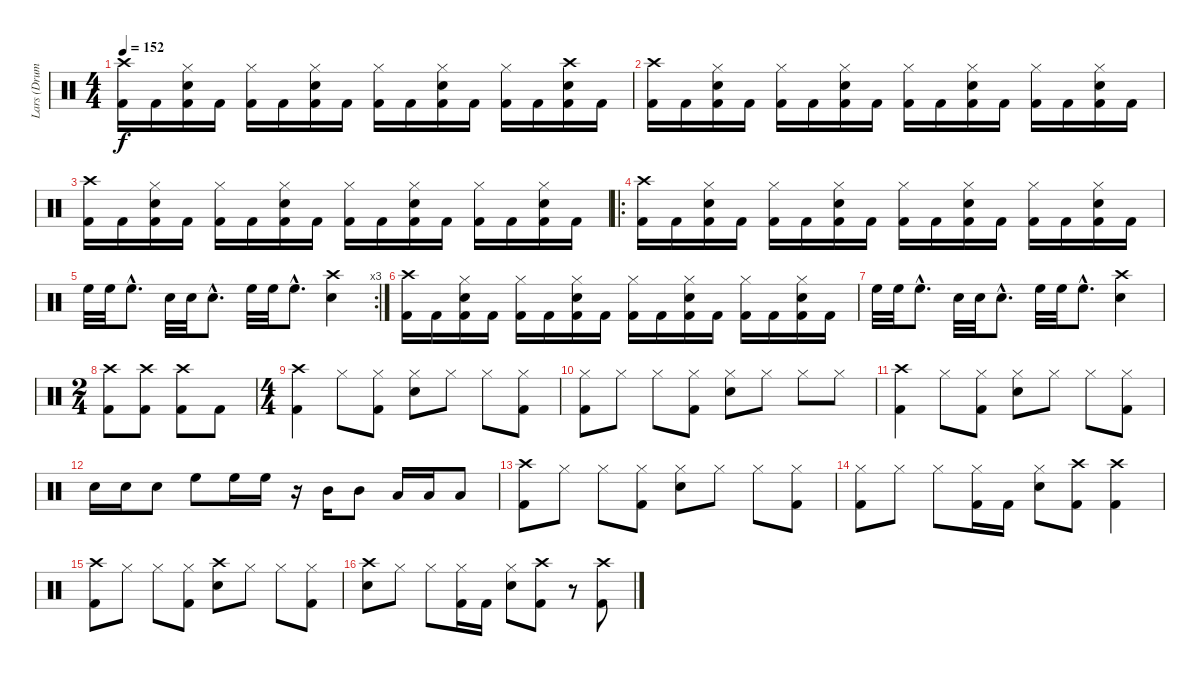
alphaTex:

\track ("Lars (Drums)" "Lars (Drum") {instrument percussion}
\staff {score}
\articulation defaults
\ts (4 4)
\tempo 152
\clef neutral
\ks c
("Crash high (hit)" "Kick (hit) 2").16{dy f} "Kick (hit) 2".16 ("Hi-Hat (closed)" "Kick (hit) 2" "Snare (hit) 2").16 "Kick (hit) 2".16 ("Hi-Hat (closed)" "Kick (hit) 2").16 "Kick (hit) 2".16 ("Hi-Hat (closed)" "Kick (hit) 2" "Snare (hit) 2").16 "Kick (hit) 2".16 ("Hi-Hat (closed)" "Kick (hit) 2").16 "Kick (hit) 2".16 ("Hi-Hat (closed)" "Kick (hit) 2" "Snare (hit) 2").16 "Kick (hit) 2".16 ("Hi-Hat (closed)" "Kick (hit) 2").16 "Kick (hit) 2".16 ("Crash high (hit)" "Kick (hit) 2" "Snare (hit) 2").16 "Kick (hit) 2".16 |
("Crash high (hit)" "Kick (hit) 2").16 "Kick (hit) 2".16 ("Hi-Hat (closed)" "Kick (hit) 2" "Snare (hit) 2").16 "Kick (hit) 2".16 ("Hi-Hat (closed)" "Kick (hit) 2").16 "Kick (hit) 2".16 ("Hi-Hat (closed)" "Kick (hit) 2" "Snare (hit) 2").16 "Kick (hit) 2".16 ("Hi-Hat (closed)" "Kick (hit) 2").16 "Kick (hit) 2".16 ("Hi-Hat (closed)" "Kick (hit) 2" "Snare (hit) 2").16 "Kick (hit) 2".16 ("Hi-Hat (closed)" "Kick (hit) 2").16 "Kick (hit) 2".16 ("Hi-Hat (closed)" "Kick (hit) 2" "Snare (hit) 2").16 "Kick (hit) 2".16 |
("Crash high (hit)" "Kick (hit) 2").16 "Kick (hit) 2".16 ("Hi-Hat (closed)" "Kick (hit) 2" "Snare (hit) 2").16 "Kick (hit) 2".16 ("Hi-Hat (closed)" "Kick (hit) 2").16 "Kick (hit) 2".16 ("Hi-Hat (closed)" "Kick (hit) 2" "Snare (hit) 2").16 "Kick (hit) 2".16 ("Hi-Hat (closed)" "Kick (hit) 2").16 "Kick (hit) 2".16 ("Hi-Hat (closed)" "Kick (hit) 2" "Snare (hit) 2").16 "Kick (hit) 2".16 ("Hi-Hat (closed)" "Kick (hit) 2").16 "Kick (hit) 2".16 ("Hi-Hat (closed)" "Kick (hit) 2" "Snare (hit) 2").16 "Kick (hit) 2".16 |
\ro
("Crash high (hit)" "Kick (hit) 2").16 "Kick (hit) 2".16 ("Hi-Hat (closed)" "Kick (hit) 2" "Snare (hit) 2").16 "Kick (hit) 2".16 ("Hi-Hat (closed)" "Kick (hit) 2").16 "Kick (hit) 2".16 ("Hi-Hat (closed)" "Kick (hit) 2" "Snare (hit) 2").16 "Kick (hit) 2".16 ("Hi-Hat (closed)" "Kick (hit) 2").16 "Kick (hit) 2".16 ("Hi-Hat (closed)" "Kick (hit) 2" "Snare (hit) 2").16 "Kick (hit) 2".16 ("Hi-Hat (closed)" "Kick (hit) 2").16 "Kick (hit) 2".16 ("Hi-Hat (closed)" "Kick (hit) 2" "Snare (hit) 2").16 "Kick (hit) 2".16 |
\rc 3 "High Floor Tom (hit)".32 "High Floor Tom (hit)".32 "High Floor Tom (hit)"{hac}.8{d} "Snare (hit) 2".32 "Snare (hit) 2".32 "Snare (hit) 2"{hac}.8{d} "High Floor Tom (hit)".32 "High Floor Tom (hit)".32 "High Floor Tom (hit)"{hac}.8{d}
("Crash high (hit)" "Snare (hit) 2").4 |
("Crash high (hit)" "Kick (hit) 2").16 "Kick (hit) 2".16 ("Hi-Hat (closed)" "Kick (hit) 2" "Snare (hit) 2").16 "Kick (hit) 2".16 ("Hi-Hat (closed)" "Kick (hit) 2").16 "Kick (hit) 2".16 ("Hi-Hat (closed)" "Kick (hit) 2" "Snare (hit) 2").16 "Kick (hit) 2".16 ("Hi-Hat (closed)" "Kick (hit) 2").16 "Kick (hit) 2".16 ("Hi-Hat (closed)" "Kick (hit) 2" "Snare (hit) 2").16 "Kick (hit) 2".16 ("Hi-Hat (closed)" "Kick (hit) 2").16 "Kick (hit) 2".16 ("Hi-Hat (closed)" "Kick (hit) 2" "Snare (hit) 2").16 "Kick (hit) 2".16 |
"High Floor Tom (hit)".32 "High Floor Tom (hit)".32 "High Floor Tom (hit)"{hac}.8{d} "Snare (hit) 2".32 "Snare (hit) 2".32 "Snare (hit) 2"{hac}.8{d} "High Floor Tom (hit)".32 "High Floor Tom (hit)".32 "High Floor Tom (hit)"{hac}.8{d} ("Crash high (hit)" "Snare (hit) 2").4 |
\ts (2 4)
("Crash high (hit)" "Kick (hit) 2").8 ("Crash high (hit)" "Kick (hit) 2").8 ("Crash high (hit)" "Kick (hit) 2").8 "Kick (hit) 2".8 |
\ts (4 4)
("Crash high (hit)" "Kick (hit) 2").4 "Hi-Hat (closed)".8 ("Hi-Hat (closed)" "Kick (hit) 2").8 ("Hi-Hat (closed)" "Snare (hit) 2").8 "Hi-Hat (closed)".8 "Hi-Hat (closed)".8 ("Hi-Hat (closed)" "Kick (hit) 2").8 |
("Hi-Hat (closed)" "Kick (hit) 2").8 "Hi-Hat (closed)".8 "Hi-Hat (closed)".8 ("Hi-Hat (closed)" "Kick (hit) 2").8 ("Hi-Hat (closed)" "Snare (hit) 2").8 "Hi-Hat (closed)".8 "Hi-Hat (closed)".8 "Hi-Hat (closed)".8 |
("Crash high (hit)" "Kick (hit) 2").4 "Hi-Hat (closed)".8 ("Hi-Hat (closed)" "Kick (hit) 2").8 ("Hi-Hat (closed)" "Snare (hit) 2").8 "Hi-Hat (closed)".8 "Hi-Hat (closed)".8 ("Hi-Hat (closed)" "Kick (hit) 2").8 |
"Snare (hit) 2".16 "Snare (hit) 2".16 "Snare (hit) 2".8 "High Floor Tom (hit)".8 "High Floor Tom (hit)".16 "High Floor Tom (hit)".16 r.16 "Mid Tom (hit)".16 "Mid Tom (hit)".8 "Low Tom (hit)".16 "Low Tom (hit)".16 "Low Tom (hit)".8 |
("Crash high (hit)" "Kick (hit) 2").8 "Hi-Hat (closed)".8 "Hi-Hat (closed)".8 ("Hi-Hat (closed)" "Kick (hit) 2").8 ("Hi-Hat (closed)" "Snare (hit) 2").8 "Hi-Hat (closed)".8 "Hi-Hat (closed)".8 ("Hi-Hat (closed)" "Kick (hit) 2").8 |
("Hi-Hat (closed)" "Kick (hit) 2").8 "Hi-Hat (closed)".8 "Hi-Hat (closed)".8 ("Hi-Hat (closed)" "Kick (hit) 2").16 "Kick (hit) 2".16 ("Hi-Hat (closed)" "Snare (hit) 2").8 ("Crash high (hit)" "Kick (hit) 2").8 ("Crash high (hit)" "Kick (hit) 2").4 |
("Crash high (hit)" "Kick (hit) 2").8 "Hi-Hat (closed)".8 "Hi-Hat (closed)".8 ("Hi-Hat (closed)" "Kick (hit) 2").8 ("Crash high (hit)" "Snare (hit) 2").8 "Hi-Hat (closed)".8 "Hi-Hat (closed)".8 ("Hi-Hat (closed)" "Kick (hit) 2").8 |
("Crash high (hit)" "Snare (hit) 2").8 "Hi-Hat (closed)".8 "Hi-Hat (closed)".8 ("Hi-Hat (closed)" "Kick (hit) 2").16 "Kick (hit) 2".16 ("Hi-Hat (closed)" "Snare (hit) 2").8 ("Crash high (hit)" "Kick (hit) 2").8 r.8 ("Crash high (hit)" "Kick (hit) 2").8
